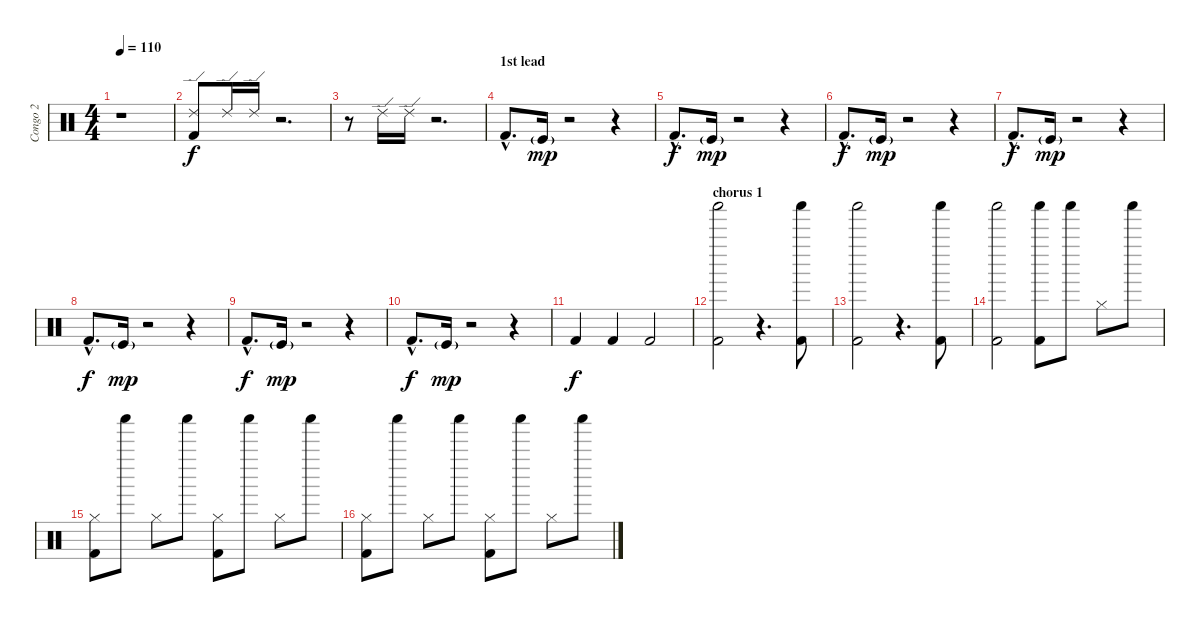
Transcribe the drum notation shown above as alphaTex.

\track ("Congo 2" "Congo 2") {instrument percussion}
\staff {score}
\articulation defaults
\ts (4 4)
\tempo 110
\clef neutral
\ks c
r.1{dy f} |
("Ride (edge) 2" "Kick (hit) 2").8 "Ride (edge) 2".16 "Ride (edge) 2".16 r.2{d} |
r.8 "Ride (edge) 2".16 "Ride (edge) 2".16 r.2{d} |
\section ("" "1st lead")
"Kick (hit) 2"{hac}.8{d} "Kick (hit)"{g}.16{dy mp} r.2 r.4 |
"Kick (hit) 2"{hac}.8{d dy f} "Kick (hit)"{g}.16{dy mp} r.2 r.4 |
"Kick (hit) 2"{hac}.8{d dy f} "Kick (hit)"{g}.16{dy mp} r.2 r.4 |
"Kick (hit) 2"{hac}.8{d dy f} "Kick (hit)"{g}.16{dy mp} r.2 r.4 |
"Kick (hit) 2"{hac}.8{d dy f} "Kick (hit)"{g}.16{dy mp} r.2 r.4 |
"Kick (hit) 2"{hac}.8{d dy f} "Kick (hit)"{g}.16{dy mp} r.2 r.4 |
"Kick (hit) 2"{hac}.8{d dy f} "Kick (hit)"{g}.16{dy mp} r.2 r.4 |
"Kick (hit) 2".4{dy f} "Kick (hit) 2".4 "Kick (hit) 2".2 |
\section ("" "chorus 1")
("Kick (hit) 2" "Shaker (hit)").2 r.4{d} ("Kick (hit) 2" "Shaker (hit)").8 |
("Kick (hit) 2" "Shaker (hit)").2 r.4{d} ("Kick (hit) 2" "Shaker (hit)").8 |
("Kick (hit) 2" "Shaker (hit)").2 ("Kick (hit) 2" "Shaker (hit)").8 "Shaker (hit)".8 "Hi-Hat (closed)".8 "Shaker (hit)".8 |
("Kick (hit) 2" "Hi-Hat (closed)").8 "Shaker (hit)".8 "Hi-Hat (closed)".8 "Shaker (hit)".8 ("Kick (hit) 2" "Hi-Hat (closed)").8 "Shaker (hit)".8 "Hi-Hat (closed)".8 "Shaker (hit)".8 |
("Kick (hit) 2" "Hi-Hat (closed)").8 "Shaker (hit)".8 "Hi-Hat (closed)".8 "Shaker (hit)".8 ("Kick (hit) 2" "Hi-Hat (closed)").8 "Shaker (hit)".8 "Hi-Hat (closed)".8 "Shaker (hit)".8
